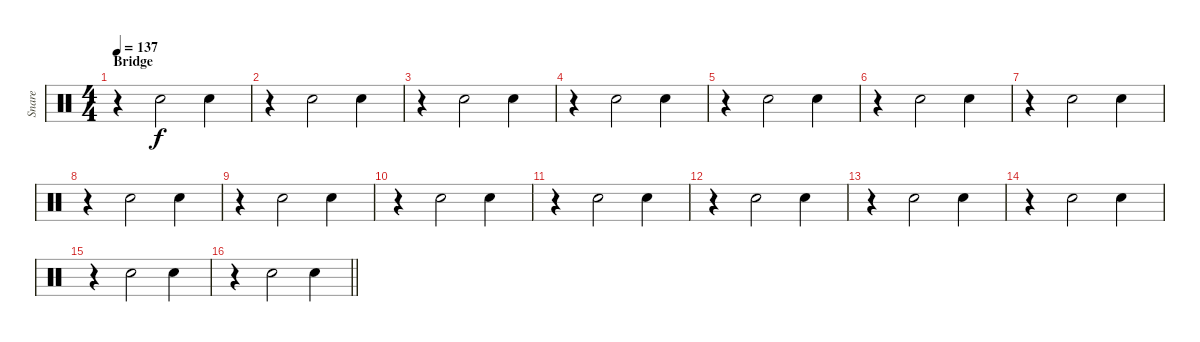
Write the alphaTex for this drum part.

\track ("Snare" "Snare") {instrument percussion}
\staff {score}
\articulation defaults
\ts (4 4)
\section ("" "Bridge")
\tempo 137
\clef neutral
\ks c
r.4{dy f} "Electric Snare (hit)".2 "Electric Snare (hit)".4 |
r.4 "Electric Snare (hit)".2 "Electric Snare (hit)".4 |
r.4 "Electric Snare (hit)".2 "Electric Snare (hit)".4 |
r.4 "Electric Snare (hit)".2 "Electric Snare (hit)".4 |
r.4 "Electric Snare (hit)".2 "Electric Snare (hit)".4 |
r.4 "Electric Snare (hit)".2 "Electric Snare (hit)".4 |
r.4 "Electric Snare (hit)".2 "Electric Snare (hit)".4 |
r.4 "Electric Snare (hit)".2 "Electric Snare (hit)".4 |
r.4 "Electric Snare (hit)".2 "Electric Snare (hit)".4 |
r.4 "Electric Snare (hit)".2 "Electric Snare (hit)".4 |
r.4 "Electric Snare (hit)".2 "Electric Snare (hit)".4 |
r.4 "Electric Snare (hit)".2 "Electric Snare (hit)".4 |
r.4 "Electric Snare (hit)".2 "Electric Snare (hit)".4 |
r.4 "Electric Snare (hit)".2 "Electric Snare (hit)".4 |
r.4 "Electric Snare (hit)".2 "Electric Snare (hit)".4 |
\barLineRight lightlight
r.4 "Electric Snare (hit)".2 "Electric Snare (hit)".4
